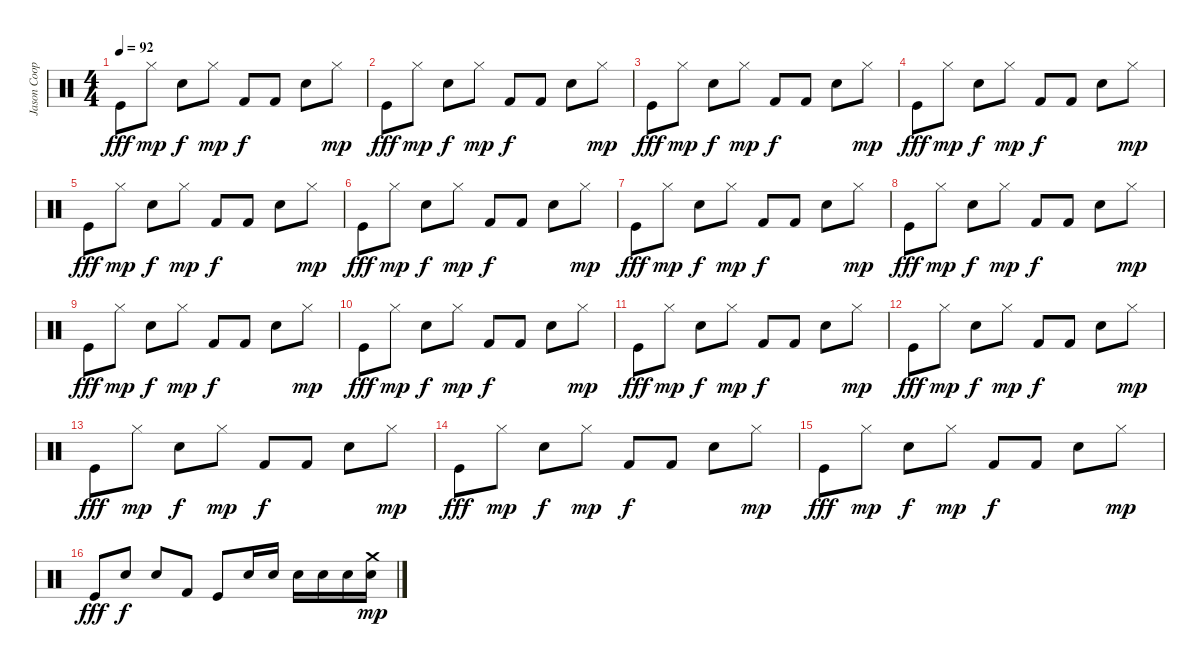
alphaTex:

\track ("Jason Cooper " "Jason Coop") {instrument percussion}
\staff {score}
\articulation defaults
\ts (4 4)
\tempo 92
\clef neutral
\ks c "Kick (hit)".8{dy fff} "Hi-Hat (closed)".8{dy mp} "Snare (hit) 2".8{dy f} "Hi-Hat (closed)".8{dy mp} "Kick (hit) 2".8{dy f} "Kick (hit) 2".8 "Snare (hit) 2".8 "Hi-Hat (closed)".8{dy mp}
|
"Kick (hit)".8{dy fff} "Hi-Hat (closed)".8{dy mp} "Snare (hit) 2".8{dy f} "Hi-Hat (closed)".8{dy mp} "Kick (hit) 2".8{dy f} "Kick (hit) 2".8 "Snare (hit) 2".8 "Hi-Hat (closed)".8{dy mp} |
"Kick (hit)".8{dy fff} "Hi-Hat (closed)".8{dy mp} "Snare (hit) 2".8{dy f} "Hi-Hat (closed)".8{dy mp} "Kick (hit) 2".8{dy f} "Kick (hit) 2".8 "Snare (hit) 2".8 "Hi-Hat (closed)".8{dy mp} |
"Kick (hit)".8{dy fff} "Hi-Hat (closed)".8{dy mp} "Snare (hit) 2".8{dy f} "Hi-Hat (closed)".8{dy mp} "Kick (hit) 2".8{dy f} "Kick (hit) 2".8 "Snare (hit) 2".8 "Hi-Hat (closed)".8{dy mp} |
"Kick (hit)".8{dy fff} "Hi-Hat (closed)".8{dy mp} "Snare (hit) 2".8{dy f} "Hi-Hat (closed)".8{dy mp} "Kick (hit) 2".8{dy f} "Kick (hit) 2".8 "Snare (hit) 2".8 "Hi-Hat (closed)".8{dy mp} |
"Kick (hit)".8{dy fff} "Hi-Hat (closed)".8{dy mp} "Snare (hit) 2".8{dy f} "Hi-Hat (closed)".8{dy mp} "Kick (hit) 2".8{dy f} "Kick (hit) 2".8 "Snare (hit) 2".8 "Hi-Hat (closed)".8{dy mp} |
"Kick (hit)".8{dy fff} "Hi-Hat (closed)".8{dy mp} "Snare (hit) 2".8{dy f} "Hi-Hat (closed)".8{dy mp} "Kick (hit) 2".8{dy f} "Kick (hit) 2".8 "Snare (hit) 2".8 "Hi-Hat (closed)".8{dy mp} |
"Kick (hit)".8{dy fff} "Hi-Hat (closed)".8{dy mp} "Snare (hit) 2".8{dy f} "Hi-Hat (closed)".8{dy mp} "Kick (hit) 2".8{dy f} "Kick (hit) 2".8 "Snare (hit) 2".8 "Hi-Hat (closed)".8{dy mp} |
"Kick (hit)".8{dy fff} "Hi-Hat (closed)".8{dy mp} "Snare (hit) 2".8{dy f} "Hi-Hat (closed)".8{dy mp} "Kick (hit) 2".8{dy f} "Kick (hit) 2".8 "Snare (hit) 2".8 "Hi-Hat (closed)".8{dy mp} |
"Kick (hit)".8{dy fff} "Hi-Hat (closed)".8{dy mp} "Snare (hit) 2".8{dy f} "Hi-Hat (closed)".8{dy mp} "Kick (hit) 2".8{dy f} "Kick (hit) 2".8 "Snare (hit) 2".8 "Hi-Hat (closed)".8{dy mp} |
"Kick (hit)".8{dy fff} "Hi-Hat (closed)".8{dy mp} "Snare (hit) 2".8{dy f} "Hi-Hat (closed)".8{dy mp} "Kick (hit) 2".8{dy f} "Kick (hit) 2".8 "Snare (hit) 2".8 "Hi-Hat (closed)".8{dy mp} |
"Kick (hit)".8{dy fff} "Hi-Hat (closed)".8{dy mp} "Snare (hit) 2".8{dy f} "Hi-Hat (closed)".8{dy mp} "Kick (hit) 2".8{dy f} "Kick (hit) 2".8 "Snare (hit) 2".8 "Hi-Hat (closed)".8{dy mp} |
"Kick (hit)".8{dy fff} "Hi-Hat (closed)".8{dy mp} "Snare (hit) 2".8{dy f} "Hi-Hat (closed)".8{dy mp} "Kick (hit) 2".8{dy f} "Kick (hit) 2".8 "Snare (hit) 2".8 "Hi-Hat (closed)".8{dy mp} |
"Kick (hit)".8{dy fff} "Hi-Hat (closed)".8{dy mp} "Snare (hit) 2".8{dy f} "Hi-Hat (closed)".8{dy mp} "Kick (hit) 2".8{dy f} "Kick (hit) 2".8 "Snare (hit) 2".8 "Hi-Hat (closed)".8{dy mp} |
"Kick (hit)".8{dy fff} "Hi-Hat (closed)".8{dy mp} "Snare (hit) 2".8{dy f} "Hi-Hat (closed)".8{dy mp} "Kick (hit) 2".8{dy f} "Kick (hit) 2".8 "Snare (hit) 2".8 "Hi-Hat (closed)".8{dy mp} |
"Kick (hit)".8{dy fff} "Snare (hit) 2".8{dy f} "Snare (hit) 2".8 "Kick (hit) 2".8 "Kick (hit)".8 "Snare (hit) 2".16 "Snare (hit) 2".16 "Snare (hit) 2".16 "Snare (hit) 2".16 "Snare (hit) 2".16 ("Electric Snare (hit)" "Crash medium (hit)").16{dy mp}
